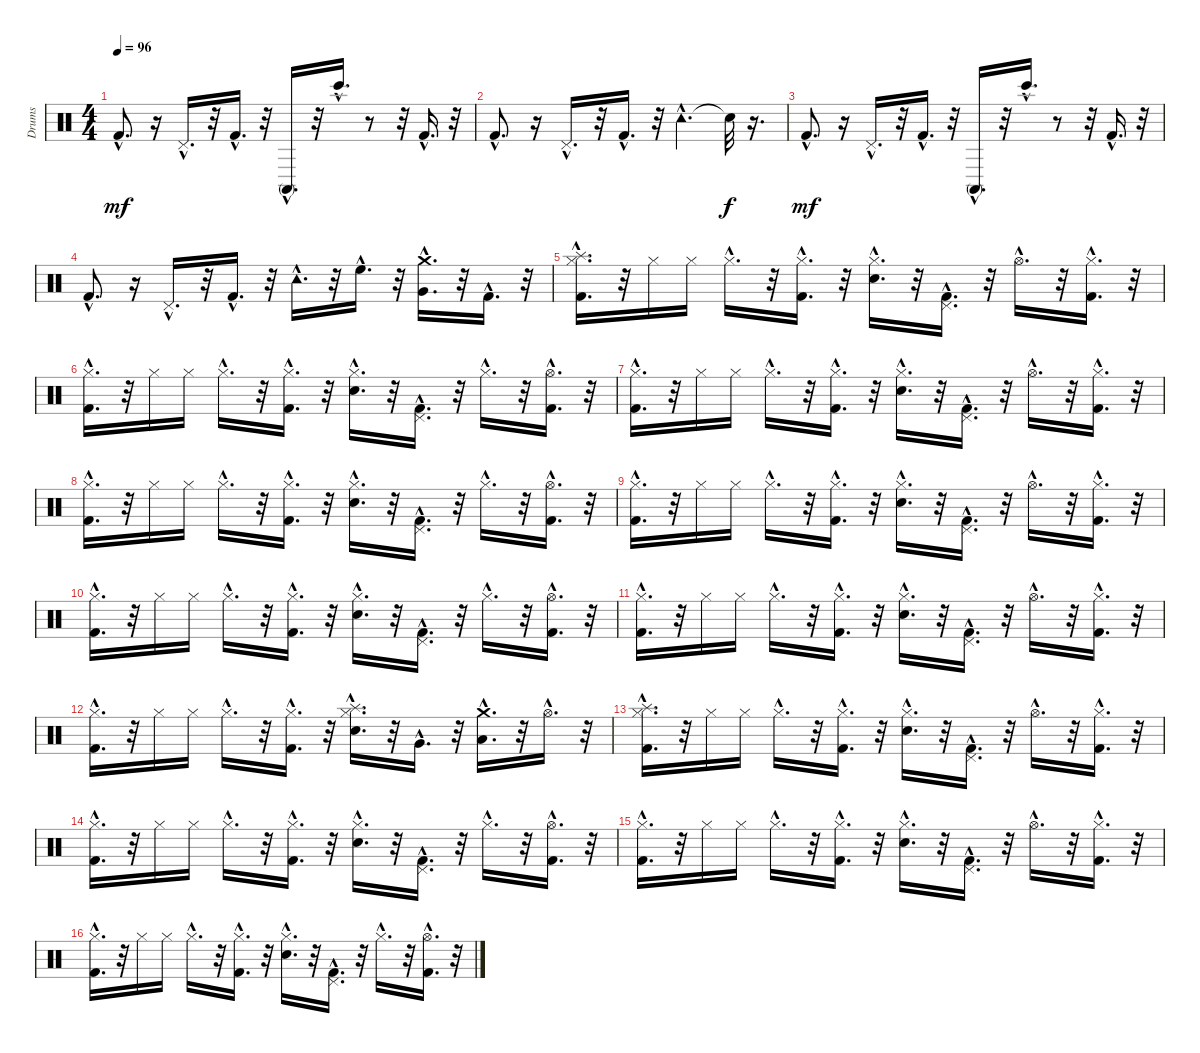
\track ("Drums" "Drums") {instrument percussion}
\staff {score}
\articulation defaults
\ts (4 4)
\tempo 96
\clef neutral
\ks c "Kick (hit) 2"{hac}.8{d dy mf}
r.16 "Pedal Hi-Hat (hit)"{hac}.16{d} r.32 "Kick (hit) 2"{hac}.16{d} r.32 "Conga high (mute)"{hac}.16{d} r.32 "Bongo High (hit)"{hac}.16{d} r.8 r.32 "Kick (hit) 2"{hac}.16{d} r.32 |
"Kick (hit) 2"{hac}.8{d} r.16 "Pedal Hi-Hat (hit)"{hac}.16{d} r.32 "Kick (hit) 2"{hac}.16{d} r.32 "Tambourine (hit)"{hac}.4{d} "Snare (hit)"{t}.32{dy f} r.16{d} |
"Kick (hit) 2"{hac}.8{d dy mf} r.16 "Pedal Hi-Hat (hit)"{hac}.16{d} r.32 "Kick (hit) 2"{hac}.16{d} r.32 "Conga high (mute)"{hac}.16{d} r.32 "Bongo High (hit)"{hac}.16{d} r.8 r.32 "Kick (hit) 2"{hac}.16{d} r.32 |
"Kick (hit) 2"{hac}.8{d} r.16 "Pedal Hi-Hat (hit)"{hac}.16{d} r.32 "Kick (hit) 2"{hac}.16{d} r.32 "Tambourine (hit)"{hac}.16{d} r.32 "High Floor Tom (hit)"{hac}.16{d} r.32 ("Very Low Tom (hit)"{hac} "Crash medium (hit)"{hac}).16{d} r.32 "Kick (hit) 2"{hac}.16{d} r.32 |
("Hi-Hat (closed)"{hac} "Splash (hit)"{hac} "Kick (hit) 2"{hac}).16{d} r.32 "Hi-Hat (closed)".16 "Hi-Hat (closed)".16 "Hi-Hat (closed)"{hac}.16{d} r.32 ("Hi-Hat (closed)"{hac} "Kick (hit) 2"{hac}).16{d} r.32 ("Snare (hit) 2"{hac} "Hi-Hat (closed)"{hac}).16{d} r.32 ("Pedal Hi-Hat (hit)"{hac} "Kick (hit) 2"{hac}).16{d} r.32 "Hi-Hat (open)"{hac}.16{d} r.32 ("Kick (hit) 2"{hac} "Hi-Hat (closed)"{hac}).16{d} r.32 |
("Hi-Hat (closed)"{hac} "Kick (hit) 2"{hac}).16{d} r.32 "Hi-Hat (closed)".16 "Hi-Hat (closed)".16 "Hi-Hat (closed)"{hac}.16{d} r.32 ("Hi-Hat (closed)"{hac} "Kick (hit) 2"{hac}).16{d} r.32 ("Hi-Hat (closed)"{hac} "Snare (hit) 2"{hac}).16{d} r.32 ("Pedal Hi-Hat (hit)"{hac} "Kick (hit) 2"{hac}).16{d} r.32 "Hi-Hat (closed)"{hac}.16{d} r.32 ("Kick (hit) 2"{hac} "Hi-Hat (open)"{hac}).16{d} r.32 |
("Hi-Hat (closed)"{hac} "Kick (hit) 2"{hac}).16{d} r.32 "Hi-Hat (closed)".16 "Hi-Hat (closed)".16 "Hi-Hat (closed)"{hac}.16{d} r.32 ("Kick (hit) 2"{hac} "Hi-Hat (closed)"{hac}).16{d} r.32 ("Hi-Hat (closed)"{hac} "Snare (hit) 2"{hac}).16{d} r.32 ("Kick (hit) 2"{hac} "Pedal Hi-Hat (hit)"{hac}).16{d} r.32 "Hi-Hat (open)"{hac}.16{d} r.32 ("Hi-Hat (closed)"{hac} "Kick (hit) 2"{hac}).16{d} r.32 |
("Kick (hit) 2"{hac} "Hi-Hat (closed)"{hac}).16{d} r.32 "Hi-Hat (closed)".16 "Hi-Hat (closed)".16 "Hi-Hat (closed)"{hac}.16{d} r.32 ("Kick (hit) 2"{hac} "Hi-Hat (closed)"{hac}).16{d} r.32 ("Snare (hit) 2"{hac} "Hi-Hat (closed)"{hac}).16{d} r.32 ("Pedal Hi-Hat (hit)"{hac} "Kick (hit) 2"{hac}).16{d} r.32 "Hi-Hat (closed)"{hac}.16{d} r.32 ("Kick (hit) 2"{hac} "Hi-Hat (open)"{hac}).16{d} r.32 |
("Hi-Hat (closed)"{hac} "Kick (hit) 2"{hac}).16{d} r.32 "Hi-Hat (closed)".16 "Hi-Hat (closed)".16 "Hi-Hat (closed)"{hac}.16{d} r.32 ("Kick (hit) 2"{hac} "Hi-Hat (closed)"{hac}).16{d} r.32 ("Hi-Hat (closed)"{hac} "Snare (hit) 2"{hac}).16{d} r.32 ("Kick (hit) 2"{hac} "Pedal Hi-Hat (hit)"{hac}).16{d} r.32 "Hi-Hat (open)"{hac}.16{d} r.32 ("Hi-Hat (closed)"{hac} "Kick (hit) 2"{hac}).16{d} r.32 |
("Hi-Hat (closed)"{hac} "Kick (hit) 2"{hac}).16{d} r.32 "Hi-Hat (closed)".16 "Hi-Hat (closed)".16 "Hi-Hat (closed)"{hac}.16{d} r.32 ("Hi-Hat (closed)"{hac} "Kick (hit) 2"{hac}).16{d} r.32 ("Snare (hit) 2"{hac} "Hi-Hat (closed)"{hac}).16{d} r.32 ("Pedal Hi-Hat (hit)"{hac} "Kick (hit) 2"{hac}).16{d} r.32 "Hi-Hat (closed)"{hac}.16{d} r.32 ("Kick (hit) 2"{hac} "Hi-Hat (open)"{hac}).16{d} r.32 |
("Kick (hit) 2"{hac} "Hi-Hat (closed)"{hac}).16{d} r.32 "Hi-Hat (closed)".16 "Hi-Hat (closed)".16 "Hi-Hat (closed)"{hac}.16{d} r.32 ("Kick (hit) 2"{hac} "Hi-Hat (closed)"{hac}).16{d} r.32 ("Hi-Hat (closed)"{hac} "Snare (hit) 2"{hac}).16{d} r.32 ("Pedal Hi-Hat (hit)"{hac} "Kick (hit) 2"{hac}).16{d} r.32 "Hi-Hat (open)"{hac}.16{d} r.32 ("Kick (hit) 2"{hac} "Hi-Hat (closed)"{hac}).16{d} r.32 |
("Hi-Hat (closed)"{hac} "Kick (hit) 2"{hac}).16{d} r.32 "Hi-Hat (closed)".16 "Hi-Hat (closed)".16 "Hi-Hat (closed)"{hac}.16{d} r.32 ("Kick (hit) 2"{hac} "Hi-Hat (closed)"{hac}).16{d} r.32 ("Snare (hit) 2"{hac} "Hi-Hat (closed)"{hac} "Splash (hit)"{hac}).16{d} r.32 "Very Low Tom (hit)"{hac}.16{d} r.32 ("Low Floor Tom (hit)"{hac} "Crash medium (hit)"{hac}).16{d} r.32 "Hi-Hat (open)"{hac}.16{d} r.32 |
("Hi-Hat (closed)"{hac} "Kick (hit) 2"{hac} "Splash (hit)"{hac}).16{d} r.32 "Hi-Hat (closed)".16 "Hi-Hat (closed)".16 "Hi-Hat (closed)"{hac}.16{d} r.32 ("Hi-Hat (closed)"{hac} "Kick (hit) 2"{hac}).16{d} r.32 ("Snare (hit) 2"{hac} "Hi-Hat (closed)"{hac}).16{d} r.32 ("Kick (hit) 2"{hac} "Pedal Hi-Hat (hit)"{hac}).16{d} r.32 "Hi-Hat (open)"{hac}.16{d} r.32 ("Kick (hit) 2"{hac} "Hi-Hat (closed)"{hac}).16{d} r.32 |
("Hi-Hat (closed)"{hac} "Kick (hit) 2"{hac}).16{d} r.32 "Hi-Hat (closed)".16 "Hi-Hat (closed)".16 "Hi-Hat (closed)"{hac}.16{d} r.32 ("Kick (hit) 2"{hac} "Hi-Hat (closed)"{hac}).16{d} r.32 ("Hi-Hat (closed)"{hac} "Snare (hit) 2"{hac}).16{d} r.32 ("Pedal Hi-Hat (hit)"{hac} "Kick (hit) 2"{hac}).16{d} r.32 "Hi-Hat (closed)"{hac}.16{d} r.32 ("Kick (hit) 2"{hac} "Hi-Hat (open)"{hac}).16{d} r.32 |
("Hi-Hat (closed)"{hac} "Kick (hit) 2"{hac}).16{d} r.32 "Hi-Hat (closed)".16 "Hi-Hat (closed)".16 "Hi-Hat (closed)"{hac}.16{d} r.32 ("Kick (hit) 2"{hac} "Hi-Hat (closed)"{hac}).16{d} r.32 ("Hi-Hat (closed)"{hac} "Snare (hit) 2"{hac}).16{d} r.32 ("Kick (hit) 2"{hac} "Pedal Hi-Hat (hit)"{hac}).16{d} r.32 "Hi-Hat (open)"{hac}.16{d} r.32 ("Hi-Hat (closed)"{hac} "Kick (hit) 2"{hac}).16{d} r.32 |
("Kick (hit) 2"{hac} "Hi-Hat (closed)"{hac}).16{d} r.32 "Hi-Hat (closed)".16 "Hi-Hat (closed)".16 "Hi-Hat (closed)"{hac}.16{d} r.32 ("Hi-Hat (closed)"{hac} "Kick (hit) 2"{hac}).16{d} r.32 ("Snare (hit) 2"{hac} "Hi-Hat (closed)"{hac}).16{d} r.32 ("Pedal Hi-Hat (hit)"{hac} "Kick (hit) 2"{hac}).16{d} r.32 "Hi-Hat (closed)"{hac}.16{d} r.32 ("Kick (hit) 2"{hac} "Hi-Hat (open)"{hac}).16{d} r.32
